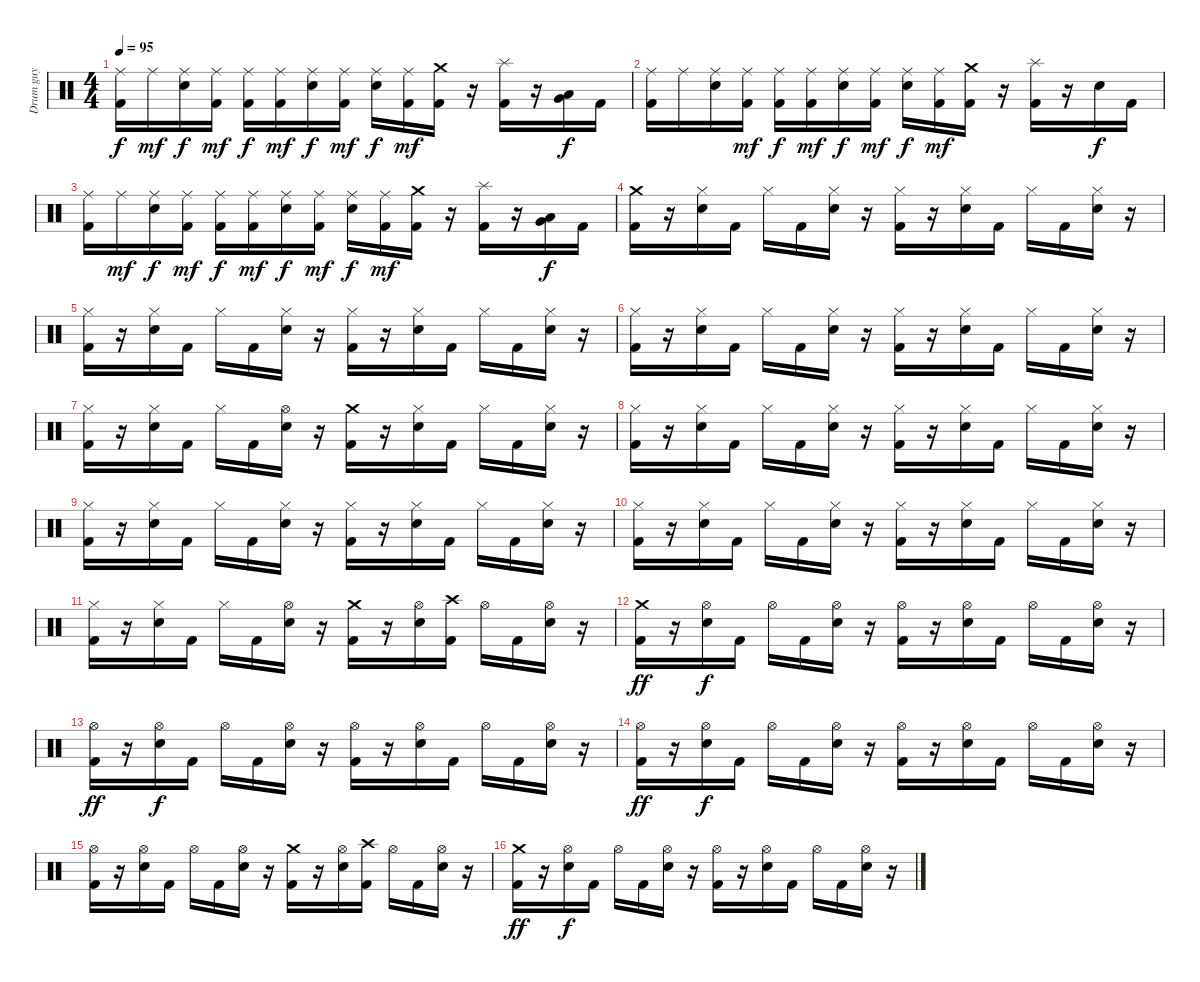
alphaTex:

\track ("Drum guy" "Drum guy") {instrument percussion}
\staff {score}
\articulation defaults
\ts (4 4)
\tempo 95
\clef neutral
\ks c
("Ride (middle)" "Kick (hit) 2").16{dy f} "Ride (middle)".16{dy mf} ("Ride (middle)" "Electric Snare (hit)").16{dy f} ("Ride (middle)" "Kick (hit) 2").16{dy mf} ("Ride (middle)" "Kick (hit) 2").16{dy f} ("Ride (middle)" "Kick (hit) 2").16{dy mf} ("Ride (middle)" "Electric Snare (hit)").16{dy f} ("Ride (middle)" "Kick (hit) 2").16{dy mf} ("Ride (middle)" "Electric Snare (hit)").16{dy f} ("Ride (middle)" "Kick (hit) 2").16{dy mf} ("Crash medium (hit)" "Kick (hit) 2").16 r.16 ("Splash (hit)" "Kick (hit) 2").16 r.16 ("Low Tom (hit)" "Very Low Tom (hit)").16{dy f} "Kick (hit) 2".16 |
("Ride (middle)" "Kick (hit) 2").16 "Ride (middle)".16 ("Ride (middle)" "Electric Snare (hit)").16 ("Ride (middle)" "Kick (hit) 2").16{dy mf} ("Ride (middle)" "Kick (hit) 2").16{dy f} ("Ride (middle)" "Kick (hit) 2").16{dy mf} ("Ride (middle)" "Electric Snare (hit)").16{dy f} ("Ride (middle)" "Kick (hit) 2").16{dy mf} ("Ride (middle)" "Electric Snare (hit)").16{dy f} ("Ride (middle)" "Kick (hit) 2").16{dy mf} ("Crash medium (hit)" "Kick (hit) 2").16 r.16 ("Splash (hit)" "Kick (hit) 2").16 r.16 "Electric Snare (hit)".16{dy f} "Kick (hit) 2".16 |
("Ride (middle)" "Kick (hit) 2").16 "Ride (middle)".16{dy mf} ("Ride (middle)" "Electric Snare (hit)").16{dy f} ("Ride (middle)" "Kick (hit) 2").16{dy mf} ("Ride (middle)" "Kick (hit) 2").16{dy f} ("Ride (middle)" "Kick (hit) 2").16{dy mf} ("Ride (middle)" "Electric Snare (hit)").16{dy f} ("Ride (middle)" "Kick (hit) 2").16{dy mf} ("Ride (middle)" "Electric Snare (hit)").16{dy f} ("Ride (middle)" "Kick (hit) 2").16{dy mf} ("Crash medium (hit)" "Kick (hit) 2").16 r.16 ("Splash (hit)" "Kick (hit) 2").16 r.16 ("Low Tom (hit)" "Very Low Tom (hit)").16{dy f} "Kick (hit) 2".16 |
("Crash medium (hit)" "Kick (hit) 2").16 r.16 ("Hi-Hat (closed)" "Electric Snare (hit)").16 "Kick (hit) 2".16 "Hi-Hat (closed)".16 "Kick (hit) 2".16 ("Hi-Hat (closed)" "Electric Snare (hit)").16 r.16 ("Hi-Hat (closed)" "Kick (hit) 2").16 r.16 ("Hi-Hat (closed)" "Electric Snare (hit)").16 "Kick (hit) 2".16 "Hi-Hat (closed)".16 "Kick (hit) 2".16 ("Hi-Hat (closed)" "Electric Snare (hit)").16 r.16 |
("Hi-Hat (closed)" "Kick (hit) 2").16 r.16 ("Hi-Hat (closed)" "Electric Snare (hit)").16 "Kick (hit) 2".16 "Hi-Hat (closed)".16 "Kick (hit) 2".16 ("Hi-Hat (closed)" "Electric Snare (hit)").16 r.16 ("Hi-Hat (closed)" "Kick (hit) 2").16 r.16 ("Hi-Hat (closed)" "Electric Snare (hit)").16 "Kick (hit) 2".16 "Hi-Hat (closed)".16 "Kick (hit) 2".16 ("Hi-Hat (closed)" "Electric Snare (hit)").16 r.16 |
("Hi-Hat (closed)" "Kick (hit) 2").16 r.16 ("Hi-Hat (closed)" "Electric Snare (hit)").16 "Kick (hit) 2".16 "Hi-Hat (closed)".16 "Kick (hit) 2".16 ("Hi-Hat (closed)" "Electric Snare (hit)").16 r.16 ("Hi-Hat (closed)" "Kick (hit) 2").16 r.16 ("Hi-Hat (closed)" "Electric Snare (hit)").16 "Kick (hit) 2".16 "Hi-Hat (closed)".16 "Kick (hit) 2".16 ("Hi-Hat (closed)" "Electric Snare (hit)").16 r.16 |
("Hi-Hat (closed)" "Kick (hit) 2").16 r.16 ("Hi-Hat (closed)" "Electric Snare (hit)").16 "Kick (hit) 2".16 "Hi-Hat (closed)".16 "Kick (hit) 2".16 ("Hi-Hat (open)" "Electric Snare (hit)").16 r.16 ("Crash medium (hit)" "Kick (hit) 2").16 r.16 ("Hi-Hat (closed)" "Electric Snare (hit)").16 "Kick (hit) 2".16 "Hi-Hat (closed)".16 "Kick (hit) 2".16 ("Hi-Hat (closed)" "Electric Snare (hit)").16 r.16 |
("Hi-Hat (closed)" "Kick (hit) 2").16 r.16 ("Hi-Hat (closed)" "Electric Snare (hit)").16 "Kick (hit) 2".16 "Hi-Hat (closed)".16 "Kick (hit) 2".16 ("Hi-Hat (closed)" "Electric Snare (hit)").16 r.16 ("Hi-Hat (closed)" "Kick (hit) 2").16 r.16 ("Hi-Hat (closed)" "Electric Snare (hit)").16 "Kick (hit) 2".16 "Hi-Hat (closed)".16 "Kick (hit) 2".16 ("Hi-Hat (closed)" "Electric Snare (hit)").16 r.16 |
("Hi-Hat (closed)" "Kick (hit) 2").16 r.16 ("Hi-Hat (closed)" "Electric Snare (hit)").16 "Kick (hit) 2".16 "Hi-Hat (closed)".16 "Kick (hit) 2".16 ("Hi-Hat (closed)" "Electric Snare (hit)").16 r.16 ("Hi-Hat (closed)" "Kick (hit) 2").16 r.16 ("Hi-Hat (closed)" "Electric Snare (hit)").16 "Kick (hit) 2".16 "Hi-Hat (closed)".16 "Kick (hit) 2".16 ("Hi-Hat (closed)" "Electric Snare (hit)").16 r.16 |
("Hi-Hat (closed)" "Kick (hit) 2").16 r.16 ("Hi-Hat (closed)" "Electric Snare (hit)").16 "Kick (hit) 2".16 "Hi-Hat (closed)".16 "Kick (hit) 2".16 ("Hi-Hat (closed)" "Electric Snare (hit)").16 r.16 ("Hi-Hat (closed)" "Kick (hit) 2").16 r.16 ("Hi-Hat (closed)" "Electric Snare (hit)").16 "Kick (hit) 2".16 "Hi-Hat (closed)".16 "Kick (hit) 2".16 ("Hi-Hat (closed)" "Electric Snare (hit)").16 r.16 |
("Hi-Hat (closed)" "Kick (hit) 2").16 r.16 ("Hi-Hat (closed)" "Electric Snare (hit)").16 "Kick (hit) 2".16 "Hi-Hat (closed)".16 "Kick (hit) 2".16 ("Hi-Hat (open)" "Electric Snare (hit)").16 r.16 ("Crash medium (hit)" "Kick (hit) 2").16 r.16 ("Hi-Hat (open)" "Electric Snare (hit)").16 ("Crash high (hit)" "Kick (hit) 2").16 "Hi-Hat (open)".16 "Kick (hit) 2".16 ("Hi-Hat (open)" "Electric Snare (hit)").16 r.16 |
("Crash medium (hit)" "Kick (hit) 2").16{dy ff} r.16 ("Hi-Hat (open)" "Electric Snare (hit)").16{dy f} "Kick (hit) 2".16 "Hi-Hat (open)".16 "Kick (hit) 2".16 ("Hi-Hat (open)" "Electric Snare (hit)").16 r.16 ("Hi-Hat (open)" "Kick (hit) 2").16 r.16 ("Hi-Hat (open)" "Electric Snare (hit)").16 "Kick (hit) 2".16 "Hi-Hat (open)".16 "Kick (hit) 2".16 ("Hi-Hat (open)" "Electric Snare (hit)").16 r.16 |
("Hi-Hat (open)" "Kick (hit) 2").16{dy ff} r.16 ("Hi-Hat (open)" "Electric Snare (hit)").16{dy f} "Kick (hit) 2".16 "Hi-Hat (open)".16 "Kick (hit) 2".16 ("Hi-Hat (open)" "Electric Snare (hit)").16 r.16 ("Hi-Hat (open)" "Kick (hit) 2").16 r.16 ("Hi-Hat (open)" "Electric Snare (hit)").16 "Kick (hit) 2".16 "Hi-Hat (open)".16 "Kick (hit) 2".16 ("Hi-Hat (open)" "Electric Snare (hit)").16 r.16 |
("Hi-Hat (open)" "Kick (hit) 2").16{dy ff} r.16 ("Hi-Hat (open)" "Electric Snare (hit)").16{dy f} "Kick (hit) 2".16 "Hi-Hat (open)".16 "Kick (hit) 2".16 ("Hi-Hat (open)" "Electric Snare (hit)").16 r.16 ("Hi-Hat (open)" "Kick (hit) 2").16 r.16 ("Hi-Hat (open)" "Electric Snare (hit)").16 "Kick (hit) 2".16 "Hi-Hat (open)".16 "Kick (hit) 2".16 ("Hi-Hat (open)" "Electric Snare (hit)").16 r.16 |
("Hi-Hat (open)" "Kick (hit) 2").16 r.16 ("Hi-Hat (open)" "Electric Snare (hit)").16 "Kick (hit) 2".16 "Hi-Hat (open)".16 "Kick (hit) 2".16 ("Hi-Hat (open)" "Electric Snare (hit)").16 r.16 ("Crash medium (hit)" "Kick (hit) 2").16 r.16 ("Hi-Hat (open)" "Electric Snare (hit)").16 ("Crash high (hit)" "Kick (hit) 2").16 "Hi-Hat (open)".16 "Kick (hit) 2".16 ("Hi-Hat (open)" "Electric Snare (hit)").16 r.16 |
("Crash medium (hit)" "Kick (hit) 2").16{dy ff} r.16 ("Hi-Hat (open)" "Electric Snare (hit)").16{dy f} "Kick (hit) 2".16 "Hi-Hat (open)".16 "Kick (hit) 2".16 ("Hi-Hat (open)" "Electric Snare (hit)").16 r.16 ("Hi-Hat (open)" "Kick (hit) 2").16 r.16 ("Hi-Hat (open)" "Electric Snare (hit)").16 "Kick (hit) 2".16 "Hi-Hat (open)".16 "Kick (hit) 2".16 ("Hi-Hat (open)" "Electric Snare (hit)").16 r.16
